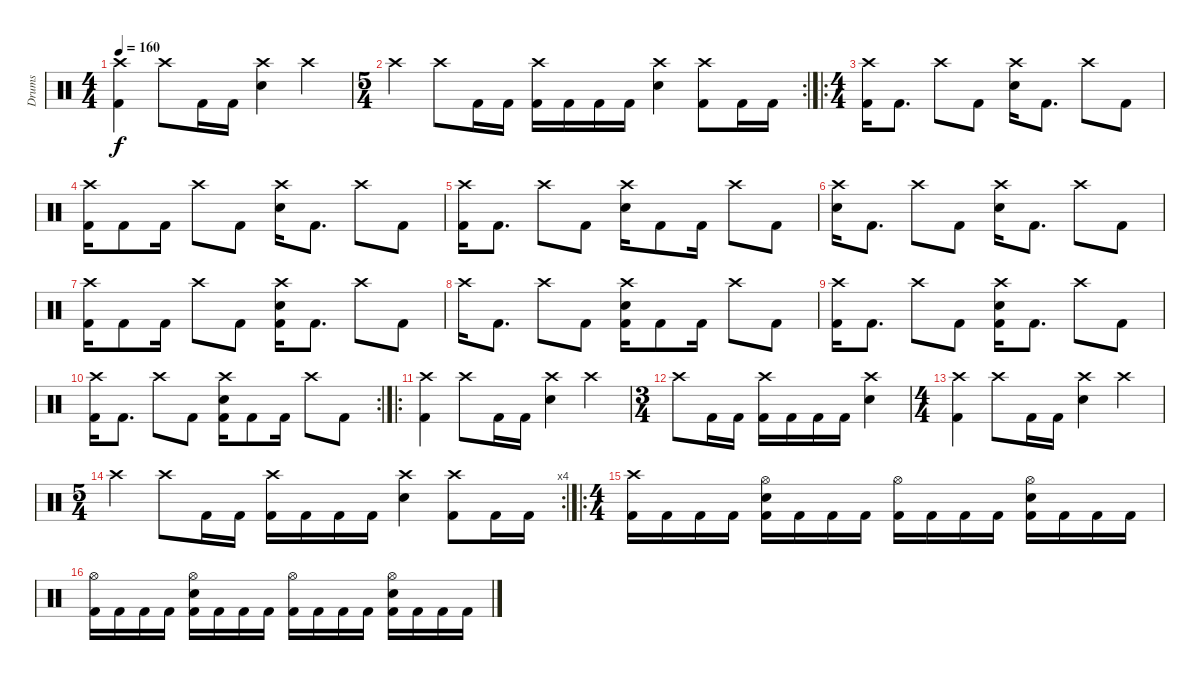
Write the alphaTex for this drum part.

\track ("Drums" "Drums") {instrument percussion}
\staff {score}
\articulation defaults
\ts (4 4)
\tempo 160
\clef neutral
\ks c
("Crash high (hit)" "Kick (hit) 2").4{dy f} "Crash high (hit)".8 "Kick (hit) 2".16 "Kick (hit) 2".16 ("Crash high (hit)" "Electric Snare (hit)").4 "Crash high (hit)".4 |
\rc 2
\ts (5 4)
"Crash high (hit)".4 "Crash high (hit)".8 "Kick (hit) 2".16 "Kick (hit) 2".16 ("Crash high (hit)" "Kick (hit) 2").16 "Kick (hit) 2".16 "Kick (hit) 2".16 "Kick (hit) 2".16 ("Crash high (hit)" "Electric Snare (hit)").4 ("Crash high (hit)" "Kick (hit) 2").8 "Kick (hit) 2".16 "Kick (hit) 2".16 |
\ro
\ts (4 4)
("Crash high (hit)" "Kick (hit) 2").16 "Kick (hit) 2".8{d} "Crash high (hit)".8 "Kick (hit) 2".8 ("Crash high (hit)" "Electric Snare (hit)").16 "Kick (hit) 2".8{d} "Crash high (hit)".8 "Kick (hit) 2".8 |
("Crash high (hit)" "Kick (hit) 2").16 "Kick (hit) 2".8 "Kick (hit) 2".16 "Crash high (hit)".8 "Kick (hit) 2".8 ("Crash high (hit)" "Electric Snare (hit)").16 "Kick (hit) 2".8{d} "Crash high (hit)".8 "Kick (hit) 2".8 |
("Crash high (hit)" "Kick (hit) 2").16 "Kick (hit) 2".8{d} "Crash high (hit)".8 "Kick (hit) 2".8 ("Crash high (hit)" "Electric Snare (hit)").16 "Kick (hit) 2".8 "Kick (hit) 2".16 "Crash high (hit)".8 "Kick (hit) 2".8 |
("Crash high (hit)" "Electric Snare (hit)").16 "Kick (hit) 2".8{d} "Crash high (hit)".8 "Kick (hit) 2".8 ("Crash high (hit)" "Electric Snare (hit)").16 "Kick (hit) 2".8{d} "Crash high (hit)".8 "Kick (hit) 2".8 |
("Crash high (hit)" "Kick (hit) 2").16 "Kick (hit) 2".8 "Kick (hit) 2".16 "Crash high (hit)".8 "Kick (hit) 2".8 ("Crash high (hit)" "Electric Snare (hit)" "Kick (hit) 2").16 "Kick (hit) 2".8{d} "Crash high (hit)".8 "Kick (hit) 2".8 |
"Crash high (hit)".16 "Kick (hit) 2".8{d} "Crash high (hit)".8 "Kick (hit) 2".8 ("Crash high (hit)" "Electric Snare (hit)" "Kick (hit) 2").16 "Kick (hit) 2".8 "Kick (hit) 2".16 "Crash high (hit)".8 "Kick (hit) 2".8 |
("Crash high (hit)" "Kick (hit) 2").16 "Kick (hit) 2".8{d} "Crash high (hit)".8 "Kick (hit) 2".8 ("Crash high (hit)" "Electric Snare (hit)" "Kick (hit) 2").16 "Kick (hit) 2".8{d} "Crash high (hit)".8 "Kick (hit) 2".8 |
\rc 2
("Crash high (hit)" "Kick (hit) 2").16 "Kick (hit) 2".8{d} "Crash high (hit)".8 "Kick (hit) 2".8 ("Crash high (hit)" "Electric Snare (hit)" "Kick (hit) 2").16 "Kick (hit) 2".8 "Kick (hit) 2".16 "Crash high (hit)".8 "Kick (hit) 2".8 |
\ro
("Crash high (hit)" "Kick (hit) 2").4 "Crash high (hit)".8 "Kick (hit) 2".16 "Kick (hit) 2".16 ("Crash high (hit)" "Electric Snare (hit)").4 "Crash high (hit)".4 |
\ts (3 4)
"Crash high (hit)".8 "Kick (hit) 2".16 "Kick (hit) 2".16 ("Crash high (hit)" "Kick (hit) 2").16 "Kick (hit) 2".16 "Kick (hit) 2".16 "Kick (hit) 2".16 ("Crash high (hit)" "Electric Snare (hit)").4 |
\ts (4 4)
("Crash high (hit)" "Kick (hit) 2").4 "Crash high (hit)".8 "Kick (hit) 2".16 "Kick (hit) 2".16 ("Crash high (hit)" "Electric Snare (hit)").4 "Crash high (hit)".4 |
\rc 4
\ts (5 4)
"Crash high (hit)".4 "Crash high (hit)".8 "Kick (hit) 2".16 "Kick (hit) 2".16 ("Crash high (hit)" "Kick (hit) 2").16 "Kick (hit) 2".16 "Kick (hit) 2".16 "Kick (hit) 2".16 ("Crash high (hit)" "Electric Snare (hit)").4 ("Crash high (hit)" "Kick (hit) 2").8 "Kick (hit) 2".16 "Kick (hit) 2".16 |
\ro
\ts (4 4)
("Crash high (hit)" "Kick (hit) 2").16 "Kick (hit) 2".16 "Kick (hit) 2".16 "Kick (hit) 2".16 ("Hi-Hat (open)" "Electric Snare (hit)" "Kick (hit) 2").16 "Kick (hit) 2".16 "Kick (hit) 2".16 "Kick (hit) 2".16 ("Hi-Hat (open)" "Kick (hit) 2").16 "Kick (hit) 2".16 "Kick (hit) 2".16 "Kick (hit) 2".16 ("Hi-Hat (open)" "Electric Snare (hit)" "Kick (hit) 2").16 "Kick (hit) 2".16 "Kick (hit) 2".16 "Kick (hit) 2".16 |
("Hi-Hat (open)" "Kick (hit) 2").16 "Kick (hit) 2".16 "Kick (hit) 2".16 "Kick (hit) 2".16 ("Hi-Hat (open)" "Electric Snare (hit)" "Kick (hit) 2").16 "Kick (hit) 2".16 "Kick (hit) 2".16 "Kick (hit) 2".16 ("Hi-Hat (open)" "Kick (hit) 2").16 "Kick (hit) 2".16 "Kick (hit) 2".16 "Kick (hit) 2".16 ("Hi-Hat (open)" "Electric Snare (hit)" "Kick (hit) 2").16 "Kick (hit) 2".16 "Kick (hit) 2".16 "Kick (hit) 2".16
